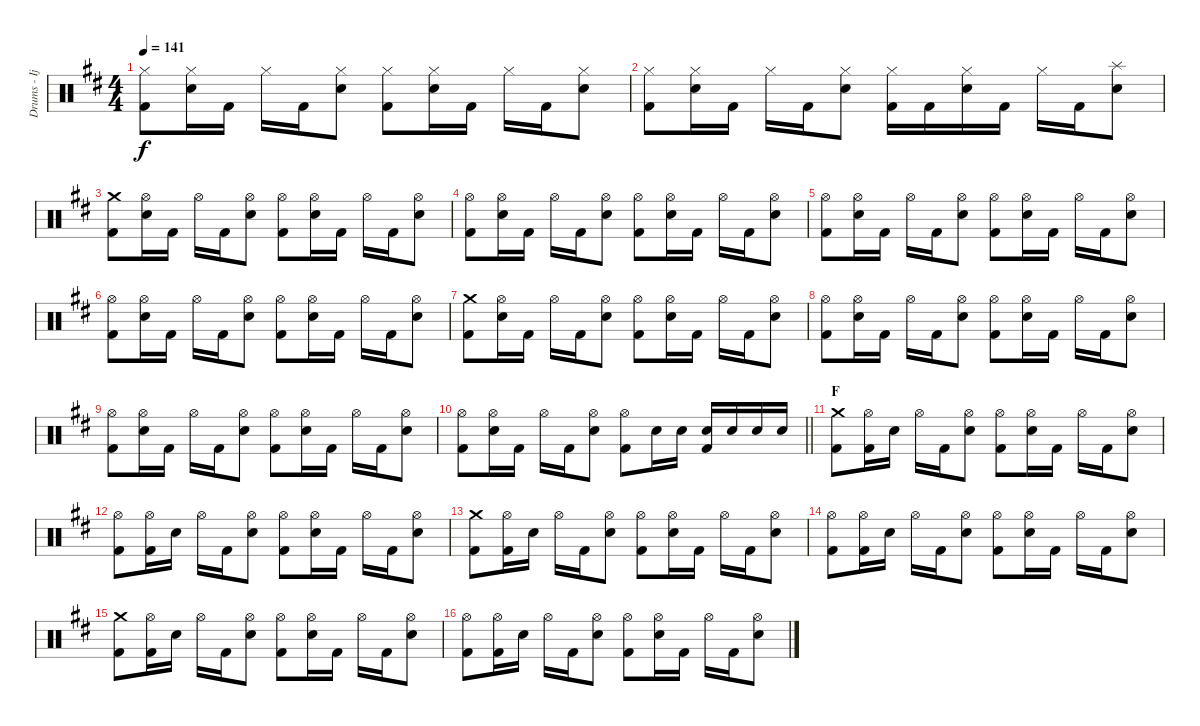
\track ("Drums - Ijichi" "Drums - Ij") {instrument percussion}
\staff {score}
\articulation defaults
\ts (4 4)
\tempo 141
\clef neutral
\ks d
("Hi-Hat (closed)" "Kick (hit) 2").8{dy f} ("Hi-Hat (closed)" "Electric Snare (hit)").16 "Kick (hit) 2".16 "Hi-Hat (closed)".16 "Kick (hit) 2".16 ("Hi-Hat (closed)" "Electric Snare (hit)").8 ("Hi-Hat (closed)" "Kick (hit) 2").8 ("Hi-Hat (closed)" "Electric Snare (hit)").16 "Kick (hit) 2".16 "Hi-Hat (closed)".16 "Kick (hit) 2".16 ("Hi-Hat (closed)" "Electric Snare (hit)").8 |
("Hi-Hat (closed)" "Kick (hit) 2").8 ("Hi-Hat (closed)" "Electric Snare (hit)").16 "Kick (hit) 2".16 "Hi-Hat (closed)".16 "Kick (hit) 2".16 ("Hi-Hat (closed)" "Electric Snare (hit)").8 ("Hi-Hat (closed)" "Kick (hit) 2").16 "Kick (hit) 2".16 ("Hi-Hat (closed)" "Electric Snare (hit)").16 "Kick (hit) 2".16 "Hi-Hat (closed)".16 "Kick (hit) 2".16 ("Splash (hit)" "Electric Snare (hit)").8 |
("Crash medium (hit)" "Kick (hit) 2").8 ("Hi-Hat (open)" "Electric Snare (hit)").16 "Kick (hit) 2".16 "Hi-Hat (open)".16 "Kick (hit) 2".16 ("Hi-Hat (open)" "Electric Snare (hit)").8 ("Hi-Hat (open)" "Kick (hit) 2").8 ("Hi-Hat (open)" "Electric Snare (hit)").16 "Kick (hit) 2".16 "Hi-Hat (open)".16 "Kick (hit) 2".16 ("Hi-Hat (open)" "Electric Snare (hit)").8 |
("Hi-Hat (open)" "Kick (hit) 2").8 ("Hi-Hat (open)" "Electric Snare (hit)").16 "Kick (hit) 2".16 "Hi-Hat (open)".16 "Kick (hit) 2".16 ("Hi-Hat (open)" "Electric Snare (hit)").8 ("Hi-Hat (open)" "Kick (hit) 2").8 ("Hi-Hat (open)" "Electric Snare (hit)").16 "Kick (hit) 2".16 "Hi-Hat (open)".16 "Kick (hit) 2".16 ("Hi-Hat (open)" "Electric Snare (hit)").8 |
("Hi-Hat (open)" "Kick (hit) 2").8 ("Hi-Hat (open)" "Electric Snare (hit)").16 "Kick (hit) 2".16 "Hi-Hat (open)".16 "Kick (hit) 2".16 ("Hi-Hat (open)" "Electric Snare (hit)").8 ("Hi-Hat (open)" "Kick (hit) 2").8 ("Hi-Hat (open)" "Electric Snare (hit)").16 "Kick (hit) 2".16 "Hi-Hat (open)".16 "Kick (hit) 2".16 ("Hi-Hat (open)" "Electric Snare (hit)").8 |
("Hi-Hat (open)" "Kick (hit) 2").8 ("Hi-Hat (open)" "Electric Snare (hit)").16 "Kick (hit) 2".16 "Hi-Hat (open)".16 "Kick (hit) 2".16 ("Hi-Hat (open)" "Electric Snare (hit)").8 ("Hi-Hat (open)" "Kick (hit) 2").8 ("Hi-Hat (open)" "Electric Snare (hit)").16 "Kick (hit) 2".16 "Hi-Hat (open)".16 "Kick (hit) 2".16 ("Hi-Hat (open)" "Electric Snare (hit)").8 |
("Crash medium (hit)" "Kick (hit) 2").8 ("Hi-Hat (open)" "Electric Snare (hit)").16 "Kick (hit) 2".16 "Hi-Hat (open)".16 "Kick (hit) 2".16 ("Hi-Hat (open)" "Electric Snare (hit)").8 ("Hi-Hat (open)" "Kick (hit) 2").8 ("Hi-Hat (open)" "Electric Snare (hit)").16 "Kick (hit) 2".16 "Hi-Hat (open)".16 "Kick (hit) 2".16 ("Hi-Hat (open)" "Electric Snare (hit)").8 |
("Hi-Hat (open)" "Kick (hit) 2").8 ("Hi-Hat (open)" "Electric Snare (hit)").16 "Kick (hit) 2".16 "Hi-Hat (open)".16 "Kick (hit) 2".16 ("Hi-Hat (open)" "Electric Snare (hit)").8 ("Hi-Hat (open)" "Kick (hit) 2").8 ("Hi-Hat (open)" "Electric Snare (hit)").16 "Kick (hit) 2".16 "Hi-Hat (open)".16 "Kick (hit) 2".16 ("Hi-Hat (open)" "Electric Snare (hit)").8 |
("Hi-Hat (open)" "Kick (hit) 2").8 ("Hi-Hat (open)" "Electric Snare (hit)").16 "Kick (hit) 2".16 "Hi-Hat (open)".16 "Kick (hit) 2".16 ("Hi-Hat (open)" "Electric Snare (hit)").8 ("Hi-Hat (open)" "Kick (hit) 2").8 ("Hi-Hat (open)" "Electric Snare (hit)").16 "Kick (hit) 2".16 "Hi-Hat (open)".16 "Kick (hit) 2".16 ("Hi-Hat (open)" "Electric Snare (hit)").8 |
\barLineRight lightlight
("Hi-Hat (open)" "Kick (hit) 2").8 ("Hi-Hat (open)" "Electric Snare (hit)").16 "Kick (hit) 2".16 "Hi-Hat (open)".16 "Kick (hit) 2".16 ("Hi-Hat (open)" "Electric Snare (hit)").8 ("Hi-Hat (open)" "Kick (hit) 2").8 "Electric Snare (hit)".16 "Electric Snare (hit)".16 ("Electric Snare (hit)" "Kick (hit) 2").16 "Electric Snare (hit)".16 "Electric Snare (hit)".16 "Electric Snare (hit)".16 |
\section ("" "F")
("Crash medium (hit)" "Kick (hit) 2").8 ("Hi-Hat (open)" "Kick (hit) 2").16 "Electric Snare (hit)".16 "Hi-Hat (open)".16 "Kick (hit) 2".16 ("Hi-Hat (open)" "Electric Snare (hit)").8 ("Hi-Hat (open)" "Kick (hit) 2").8 ("Hi-Hat (open)" "Electric Snare (hit)").16 "Kick (hit) 2".16 "Hi-Hat (open)".16 "Kick (hit) 2".16 ("Hi-Hat (open)" "Electric Snare (hit)").8 |
("Hi-Hat (open)" "Kick (hit) 2").8 ("Hi-Hat (open)" "Kick (hit) 2").16 "Electric Snare (hit)".16 "Hi-Hat (open)".16 "Kick (hit) 2".16 ("Hi-Hat (open)" "Electric Snare (hit)").8 ("Hi-Hat (open)" "Kick (hit) 2").8 ("Hi-Hat (open)" "Electric Snare (hit)").16 "Kick (hit) 2".16 "Hi-Hat (open)".16 "Kick (hit) 2".16 ("Hi-Hat (open)" "Electric Snare (hit)").8 |
("Crash medium (hit)" "Kick (hit) 2").8 ("Hi-Hat (open)" "Kick (hit) 2").16 "Electric Snare (hit)".16 "Hi-Hat (open)".16 "Kick (hit) 2".16 ("Hi-Hat (open)" "Electric Snare (hit)").8 ("Hi-Hat (open)" "Kick (hit) 2").8 ("Hi-Hat (open)" "Electric Snare (hit)").16 "Kick (hit) 2".16 "Hi-Hat (open)".16 "Kick (hit) 2".16 ("Hi-Hat (open)" "Electric Snare (hit)").8 |
("Hi-Hat (open)" "Kick (hit) 2").8 ("Hi-Hat (open)" "Kick (hit) 2").16 "Electric Snare (hit)".16 "Hi-Hat (open)".16 "Kick (hit) 2".16 ("Hi-Hat (open)" "Electric Snare (hit)").8 ("Hi-Hat (open)" "Kick (hit) 2").8 ("Hi-Hat (open)" "Electric Snare (hit)").16 "Kick (hit) 2".16 "Hi-Hat (open)".16 "Kick (hit) 2".16 ("Hi-Hat (open)" "Electric Snare (hit)").8 |
("Crash medium (hit)" "Kick (hit) 2").8 ("Hi-Hat (open)" "Kick (hit) 2").16 "Electric Snare (hit)".16 "Hi-Hat (open)".16 "Kick (hit) 2".16 ("Hi-Hat (open)" "Electric Snare (hit)").8 ("Hi-Hat (open)" "Kick (hit) 2").8 ("Hi-Hat (open)" "Electric Snare (hit)").16 "Kick (hit) 2".16 "Hi-Hat (open)".16 "Kick (hit) 2".16 ("Hi-Hat (open)" "Electric Snare (hit)").8 |
("Hi-Hat (open)" "Kick (hit) 2").8 ("Hi-Hat (open)" "Kick (hit) 2").16 "Electric Snare (hit)".16 "Hi-Hat (open)".16 "Kick (hit) 2".16 ("Hi-Hat (open)" "Electric Snare (hit)").8 ("Hi-Hat (open)" "Kick (hit) 2").8 ("Hi-Hat (open)" "Electric Snare (hit)").16 "Kick (hit) 2".16 "Hi-Hat (open)".16 "Kick (hit) 2".16 ("Hi-Hat (open)" "Electric Snare (hit)").8
